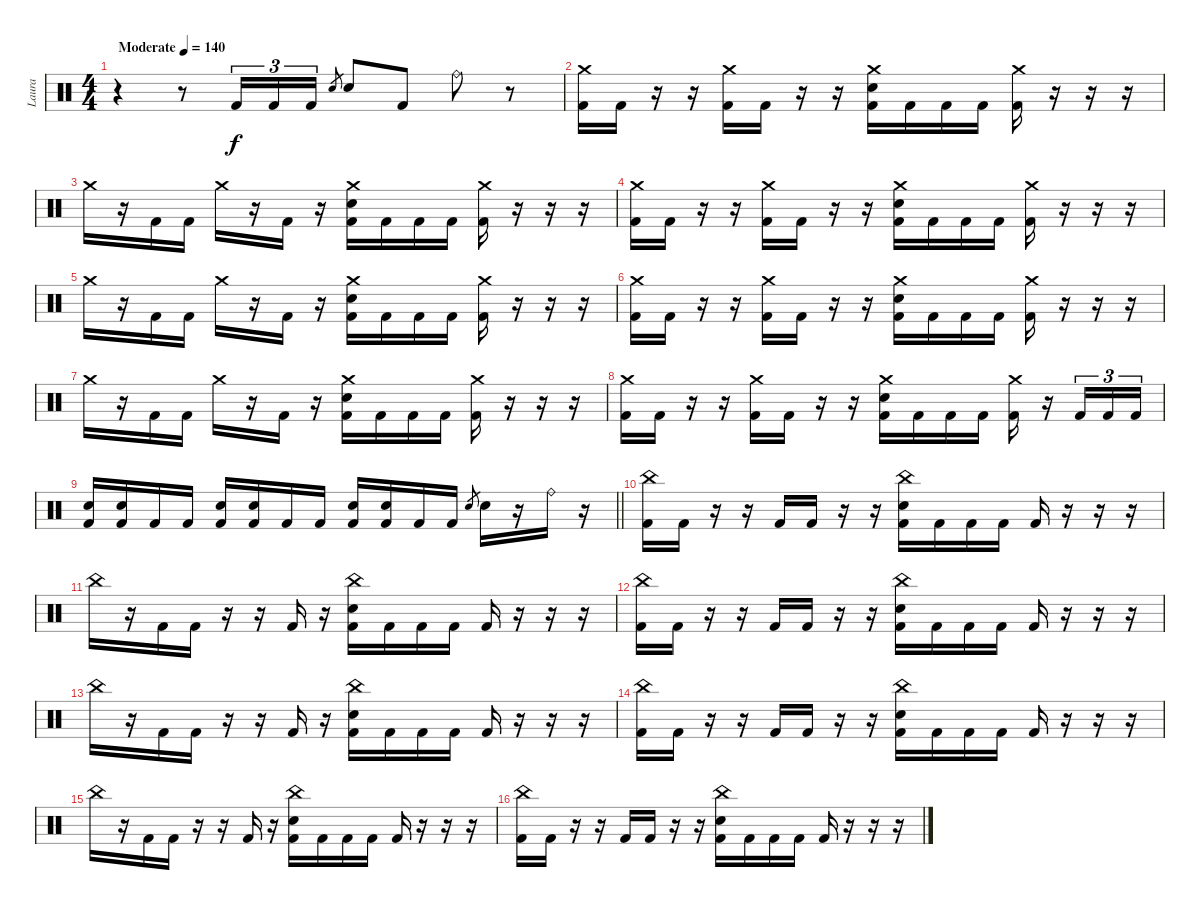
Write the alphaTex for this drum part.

\track ("Laura" "Laura") {instrument percussion}
\staff {score}
\articulation defaults
\ts (4 4)
\tempo (140 "Moderate")
\clef neutral
\ks c
r.4{dy f} r.8 "Kick (hit) 2".16{tu (3 2)} "Kick (hit) 2".16{tu (3 2)} "Kick (hit) 2".16{tu (3 2)} "Electric Snare (hit)".8{gr} "Electric Snare (hit)".8 "Kick (hit) 2".8 "Ride (bell)".8 r.8 |
("Crash medium (hit)" "Kick (hit) 2").16 "Kick (hit) 2".16 r.16 r.16 ("Crash medium (hit)" "Kick (hit) 2").16 "Kick (hit) 2".16 r.16 r.16 ("Crash medium (hit)" "Electric Snare (hit)" "Kick (hit) 2").16 "Kick (hit) 2".16 "Kick (hit) 2".16 "Kick (hit) 2".16 ("Crash medium (hit)" "Kick (hit) 2").16 r.16 r.16 r.16 |
"Crash medium (hit)".16 r.16 "Kick (hit) 2".16 "Kick (hit) 2".16 "Crash medium (hit)".16 r.16 "Kick (hit) 2".16 r.16 ("Crash medium (hit)" "Electric Snare (hit)" "Kick (hit) 2").16 "Kick (hit) 2".16 "Kick (hit) 2".16 "Kick (hit) 2".16 ("Crash medium (hit)" "Kick (hit) 2").16 r.16 r.16 r.16 |
("Crash medium (hit)" "Kick (hit) 2").16 "Kick (hit) 2".16 r.16 r.16 ("Crash medium (hit)" "Kick (hit) 2").16 "Kick (hit) 2".16 r.16 r.16 ("Crash medium (hit)" "Electric Snare (hit)" "Kick (hit) 2").16 "Kick (hit) 2".16 "Kick (hit) 2".16 "Kick (hit) 2".16 ("Crash medium (hit)" "Kick (hit) 2").16 r.16 r.16 r.16 |
"Crash medium (hit)".16 r.16 "Kick (hit) 2".16 "Kick (hit) 2".16 "Crash medium (hit)".16 r.16 "Kick (hit) 2".16 r.16 ("Crash medium (hit)" "Electric Snare (hit)" "Kick (hit) 2").16 "Kick (hit) 2".16 "Kick (hit) 2".16 "Kick (hit) 2".16 ("Crash medium (hit)" "Kick (hit) 2").16 r.16 r.16 r.16 |
("Crash medium (hit)" "Kick (hit) 2").16 "Kick (hit) 2".16 r.16 r.16 ("Crash medium (hit)" "Kick (hit) 2").16 "Kick (hit) 2".16 r.16 r.16 ("Crash medium (hit)" "Electric Snare (hit)" "Kick (hit) 2").16 "Kick (hit) 2".16 "Kick (hit) 2".16 "Kick (hit) 2".16 ("Crash medium (hit)" "Kick (hit) 2").16 r.16 r.16 r.16 |
"Crash medium (hit)".16 r.16 "Kick (hit) 2".16 "Kick (hit) 2".16 "Crash medium (hit)".16 r.16 "Kick (hit) 2".16 r.16 ("Crash medium (hit)" "Electric Snare (hit)" "Kick (hit) 2").16 "Kick (hit) 2".16 "Kick (hit) 2".16 "Kick (hit) 2".16 ("Crash medium (hit)" "Kick (hit) 2").16 r.16 r.16 r.16 |
("Crash medium (hit)" "Kick (hit) 2").16 "Kick (hit) 2".16 r.16 r.16 ("Crash medium (hit)" "Kick (hit) 2").16 "Kick (hit) 2".16 r.16 r.16 ("Crash medium (hit)" "Electric Snare (hit)" "Kick (hit) 2").16 "Kick (hit) 2".16 "Kick (hit) 2".16 "Kick (hit) 2".16 ("Crash medium (hit)" "Kick (hit) 2").16 r.16 "Kick (hit) 2".16{tu (3 2)} "Kick (hit) 2".16{tu (3 2)} "Kick (hit) 2".16{tu (3 2)} |
\barLineRight lightlight
("Electric Snare (hit)" "Kick (hit) 2").16 ("Electric Snare (hit)" "Kick (hit) 2").16 "Kick (hit) 2".16 "Kick (hit) 2".16 ("Electric Snare (hit)" "Kick (hit) 2").16 ("Electric Snare (hit)" "Kick (hit) 2").16 "Kick (hit) 2".16 "Kick (hit) 2".16 ("Electric Snare (hit)" "Kick (hit) 2").16 ("Electric Snare (hit)" "Kick (hit) 2").16 "Kick (hit) 2".16 "Kick (hit) 2".16 "Electric Snare (hit)".8{gr} "Electric Snare (hit)".16 r.16 "Ride (bell)".16 r.16 |
\section ("" "")
("China (hit)" "Kick (hit) 2").16 "Kick (hit) 2".16 r.16 r.16 "Kick (hit) 2".16 "Kick (hit) 2".16 r.16 r.16 ("China (hit)" "Electric Snare (hit)" "Kick (hit) 2").16 "Kick (hit) 2".16 "Kick (hit) 2".16 "Kick (hit) 2".16 "Kick (hit) 2".16 r.16 r.16 r.16 |
"China (hit)".16 r.16 "Kick (hit) 2".16 "Kick (hit) 2".16 r.16 r.16 "Kick (hit) 2".16 r.16 ("China (hit)" "Electric Snare (hit)" "Kick (hit) 2").16 "Kick (hit) 2".16 "Kick (hit) 2".16 "Kick (hit) 2".16 "Kick (hit) 2".16 r.16 r.16 r.16 |
("China (hit)" "Kick (hit) 2").16 "Kick (hit) 2".16 r.16 r.16 "Kick (hit) 2".16 "Kick (hit) 2".16 r.16 r.16 ("China (hit)" "Electric Snare (hit)" "Kick (hit) 2").16 "Kick (hit) 2".16 "Kick (hit) 2".16 "Kick (hit) 2".16 "Kick (hit) 2".16 r.16 r.16 r.16 |
"China (hit)".16 r.16 "Kick (hit) 2".16 "Kick (hit) 2".16 r.16 r.16 "Kick (hit) 2".16 r.16 ("China (hit)" "Electric Snare (hit)" "Kick (hit) 2").16 "Kick (hit) 2".16 "Kick (hit) 2".16 "Kick (hit) 2".16 "Kick (hit) 2".16 r.16 r.16 r.16 |
("China (hit)" "Kick (hit) 2").16 "Kick (hit) 2".16 r.16 r.16 "Kick (hit) 2".16 "Kick (hit) 2".16 r.16 r.16 ("China (hit)" "Electric Snare (hit)" "Kick (hit) 2").16 "Kick (hit) 2".16 "Kick (hit) 2".16 "Kick (hit) 2".16 "Kick (hit) 2".16 r.16 r.16 r.16 |
"China (hit)".16 r.16 "Kick (hit) 2".16 "Kick (hit) 2".16 r.16 r.16 "Kick (hit) 2".16 r.16 ("China (hit)" "Electric Snare (hit)" "Kick (hit) 2").16 "Kick (hit) 2".16 "Kick (hit) 2".16 "Kick (hit) 2".16 "Kick (hit) 2".16 r.16 r.16 r.16 |
("China (hit)" "Kick (hit) 2").16 "Kick (hit) 2".16 r.16 r.16 "Kick (hit) 2".16 "Kick (hit) 2".16 r.16 r.16 ("China (hit)" "Electric Snare (hit)" "Kick (hit) 2").16 "Kick (hit) 2".16 "Kick (hit) 2".16 "Kick (hit) 2".16 "Kick (hit) 2".16 r.16 r.16 r.16
